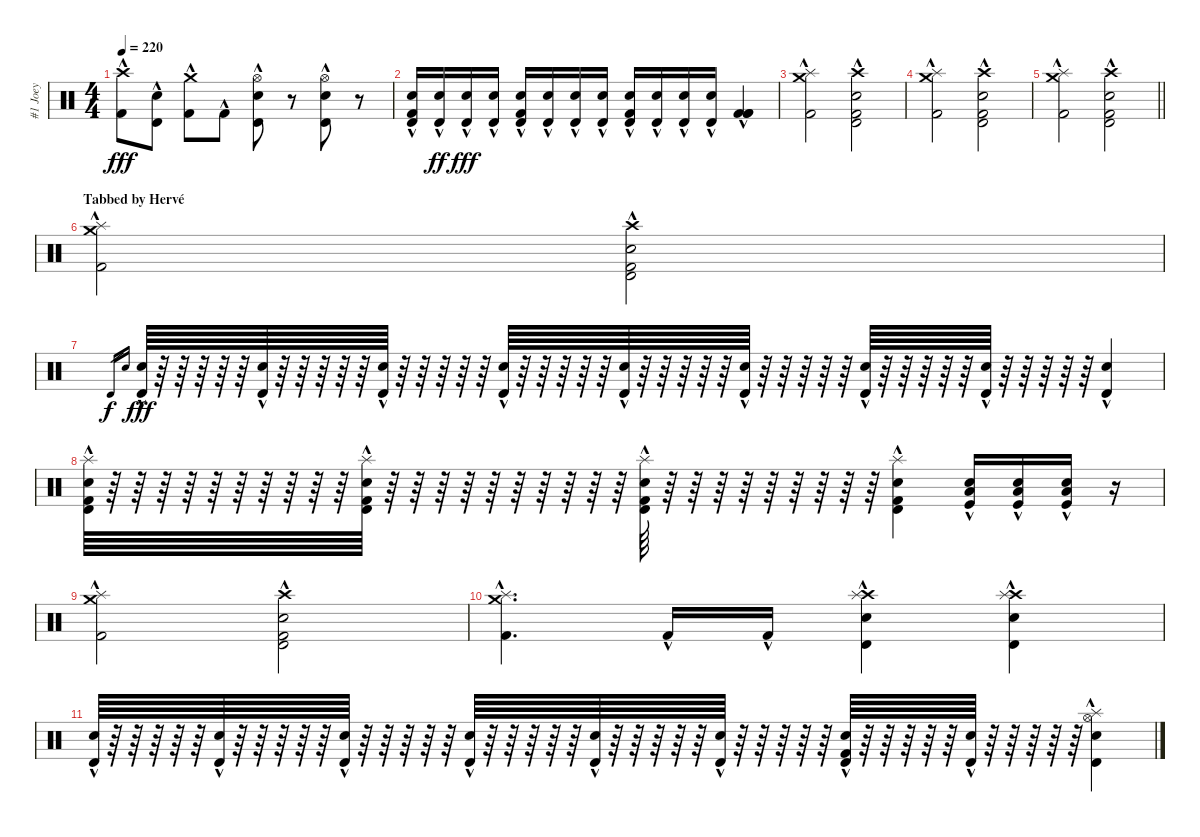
\track ("#1 Joey" "#1 Joey") {instrument percussion}
\staff {score}
\articulation defaults
\ts (4 4)
\tempo 220
\clef neutral
\ks c
("Crash high (hit)"{hac} "Kick (hit) 2"{hac}).8{dy fff} ("Timbale high (hit)"{hac} "Electric Snare (hit)"{hac}).8 ("Crash medium (hit)"{hac} "Kick (hit) 2"{hac}).8 "Kick (hit) 2"{hac}.8 ("Hi-Hat (open)"{hac} "Timbale high (hit)"{hac} "Electric Snare (hit)"{hac}).8 r.8 ("Hi-Hat (open)"{hac} "Timbale high (hit)"{hac} "Electric Snare (hit)"{hac}).8 r.8 |
("Timbale high (hit)"{hac} "Electric Snare (hit)"{hac} "Kick (hit) 2"{hac}).16 ("Timbale high (hit)"{hac} "Electric Snare (hit)"{hac}).16{dy ff} ("Timbale high (hit)"{hac} "Electric Snare (hit)"{hac}).16{dy fff} ("Timbale high (hit)"{hac} "Electric Snare (hit)"{hac}).16 ("Timbale high (hit)"{hac} "Electric Snare (hit)"{hac} "Kick (hit) 2"{hac}).16 ("Timbale high (hit)"{hac} "Electric Snare (hit)"{hac}).16 ("Timbale high (hit)"{hac} "Electric Snare (hit)"{hac}).16 ("Timbale high (hit)"{hac} "Electric Snare (hit)"{hac}).16 ("Timbale high (hit)"{hac} "Electric Snare (hit)"{hac} "Kick (hit) 2"{hac}).16 ("Timbale high (hit)"{hac} "Electric Snare (hit)"{hac}).16 ("Timbale high (hit)"{hac} "Electric Snare (hit)"{hac}).16 ("Timbale high (hit)"{hac} "Electric Snare (hit)"{hac}).16 ("Kick (hit) 2"{hac} "Kick (hit) 2"{hac} "Kick (hit) 2"{hac}).4 |
("Crash medium (hit)"{hac} "Splash (hit)"{hac} "Kick (hit) 2"{hac}).2 ("Crash high (hit)"{hac} "Timbale high (hit)"{hac} "Electric Snare (hit)"{hac} "Kick (hit) 2"{hac}).2 |
("Crash medium (hit)"{hac} "Splash (hit)"{hac} "Kick (hit) 2"{hac}).2 ("Crash high (hit)"{hac} "Timbale high (hit)"{hac} "Electric Snare (hit)"{hac} "Kick (hit) 2"{hac}).2 |
\barLineRight lightlight
("Crash medium (hit)"{hac} "Splash (hit)"{hac} "Kick (hit) 2"{hac}).2 ("Crash high (hit)"{hac} "Timbale high (hit)"{hac} "Electric Snare (hit)"{hac} "Kick (hit) 2"{hac}).2 |
\section ("" "Tabbed by Hervé")
("Crash medium (hit)"{hac} "Splash (hit)"{hac} "Kick (hit) 2"{hac}).2 ("Crash high (hit)"{hac} "Timbale high (hit)"{hac} "Electric Snare (hit)"{hac} "Kick (hit) 2"{hac}).2 |
"Timbale high (hit)".16{gr dy f} "Electric Snare (hit)".16{gr} ("Timbale high (hit)"{hac} "Electric Snare (hit)"{hac}).64{dy fff} r.64 r.64 r.64 r.64 r.64 ("Timbale high (hit)"{hac} "Electric Snare (hit)"{hac}).64 r.64 r.64 r.64 r.64 r.64 ("Timbale high (hit)"{hac} "Electric Snare (hit)"{hac}).64 r.64 r.64 r.64 r.64 r.64 ("Timbale high (hit)"{hac} "Electric Snare (hit)"{hac}).64 r.64 r.64 r.64 r.64 r.64 ("Timbale high (hit)"{hac} "Electric Snare (hit)"{hac}).64 r.64 r.64 r.64 r.64 r.64 ("Timbale high (hit)"{hac} "Electric Snare (hit)"{hac}).64 r.64 r.64 r.64 r.64 r.64 ("Timbale high (hit)"{hac} "Electric Snare (hit)"{hac}).64 r.64 r.64 r.64 r.64 r.64 ("Timbale high (hit)"{hac} "Electric Snare (hit)"{hac}).64 r.64 r.64 r.64 r.64 r.64 ("Timbale high (hit)"{hac} "Electric Snare (hit)"{hac}).4 |
("Splash (hit)"{hac} "Timbale high (hit)"{hac} "Electric Snare (hit)"{hac} "Kick (hit) 2"{hac}).64 r.64 r.64 r.64 r.64 r.64 r.64 r.64 r.64 r.64 r.64 ("Splash (hit)"{hac} "Timbale high (hit)"{hac} "Electric Snare (hit)"{hac} "Kick (hit) 2"{hac}).64 r.64 r.64 r.64 r.64 r.64 r.64 r.64 r.64 r.64 r.64 ("Splash (hit)"{hac} "Timbale high (hit)"{hac} "Electric Snare (hit)"{hac} "Kick (hit) 2"{hac}).64 r.64 r.64 r.64 r.64 r.64 r.64 r.64 r.64 r.64 ("Splash (hit)"{hac} "Timbale high (hit)"{hac} "Electric Snare (hit)"{hac} "Kick (hit) 2"{hac}).4 ("Electric Snare (hit)"{hac} "Low Floor Tom (hit)"{hac} "Kick (hit)"{hac}).16 ("Electric Snare (hit)"{hac} "Low Floor Tom (hit)"{hac} "Kick (hit)"{hac}).16 ("Electric Snare (hit)"{hac} "Low Floor Tom (hit)"{hac} "Kick (hit)"{hac}).16 r.16 |
("Crash medium (hit)"{hac} "Splash (hit)"{hac} "Kick (hit) 2"{hac}).2 ("Crash high (hit)"{hac} "Timbale high (hit)"{hac} "Electric Snare (hit)"{hac} "Kick (hit) 2"{hac}).2 |
("Crash medium (hit)"{hac} "Splash (hit)"{hac} "Kick (hit) 2"{hac}).4{d} "Kick (hit) 2"{hac}.16 "Kick (hit) 2"{hac}.16 ("Crash high (hit)"{hac} "Splash (hit)"{hac} "Timbale high (hit)"{hac} "Electric Snare (hit)"{hac}).4 ("Crash high (hit)"{hac} "Splash (hit)"{hac} "Timbale high (hit)"{hac} "Electric Snare (hit)"{hac}).4 |
("Timbale high (hit)"{hac} "Electric Snare (hit)"{hac}).64 r.64 r.64 r.64 r.64 r.64 ("Timbale high (hit)"{hac} "Electric Snare (hit)"{hac}).64 r.64 r.64 r.64 r.64 r.64 ("Timbale high (hit)"{hac} "Electric Snare (hit)"{hac}).64 r.64 r.64 r.64 r.64 r.64 ("Timbale high (hit)"{hac} "Electric Snare (hit)"{hac}).64 r.64 r.64 r.64 r.64 r.64 ("Timbale high (hit)"{hac} "Electric Snare (hit)"{hac}).64 r.64 r.64 r.64 r.64 r.64 ("Timbale high (hit)"{hac} "Electric Snare (hit)"{hac}).64 r.64 r.64 r.64 r.64 r.64 ("Timbale high (hit)"{hac} "Electric Snare (hit)"{hac} "Kick (hit) 2"{hac}).64 r.64 r.64 r.64 r.64 r.64 ("Timbale high (hit)"{hac} "Electric Snare (hit)"{hac}).64 r.64 r.64 r.64 r.64 r.64 ("Hi-Hat (open)"{hac} "Splash (hit)"{hac} "Timbale high (hit)"{hac} "Electric Snare (hit)"{hac}).4
